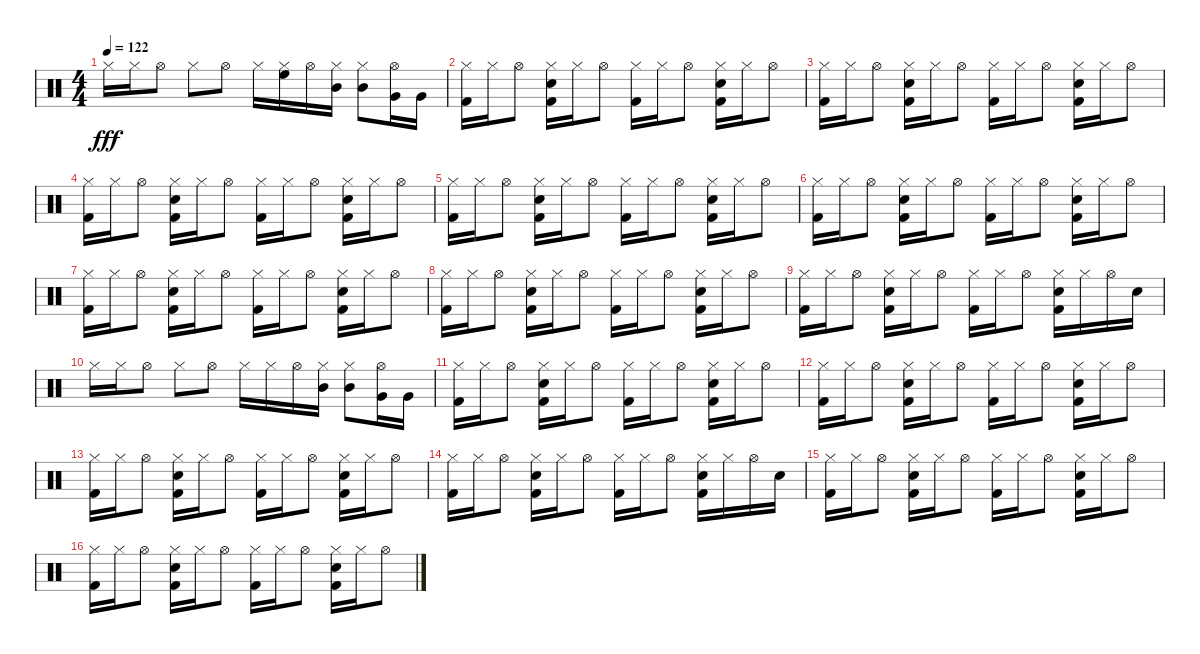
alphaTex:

\track "" {instrument percussion}
\staff {score}
\articulation defaults
\ts (4 4)
\tempo 122
\clef neutral
\ks c "Hi-Hat (closed)".16{dy fff} "Hi-Hat (closed)".16 "Hi-Hat (open)".8 "Hi-Hat (closed)".8 "Hi-Hat (open)".8 "Hi-Hat (closed)".16
("Hi-Hat (closed)" "High Floor Tom (hit)").16 "Hi-Hat (open)".16 ("Hi-Hat (closed)" "Mid Tom (hit)").16 ("Hi-Hat (closed)" "Mid Tom (hit)").8 ("Very Low Tom (hit)" "Hi-Hat (open)").16 "Very Low Tom (hit)".16 |
("Kick (hit) 2" "Hi-Hat (closed)").16 "Hi-Hat (closed)".16 "Hi-Hat (open)".8 ("Kick (hit) 2" "Snare (hit) 2" "Hi-Hat (closed)").16 "Hi-Hat (closed)".16 "Hi-Hat (open)".8 ("Kick (hit) 2" "Hi-Hat (closed)").16 "Hi-Hat (closed)".16 "Hi-Hat (open)".8 ("Kick (hit) 2" "Snare (hit) 2" "Hi-Hat (closed)").16 "Hi-Hat (closed)".16 "Hi-Hat (open)".8 |
("Kick (hit) 2" "Hi-Hat (closed)").16 "Hi-Hat (closed)".16 "Hi-Hat (open)".8 ("Kick (hit) 2" "Snare (hit) 2" "Hi-Hat (closed)").16 "Hi-Hat (closed)".16 "Hi-Hat (open)".8 ("Kick (hit) 2" "Hi-Hat (closed)").16 "Hi-Hat (closed)".16 "Hi-Hat (open)".8 ("Kick (hit) 2" "Snare (hit) 2" "Hi-Hat (closed)").16 "Hi-Hat (closed)".16 "Hi-Hat (open)".8 |
("Kick (hit) 2" "Hi-Hat (closed)").16 "Hi-Hat (closed)".16 "Hi-Hat (open)".8 ("Kick (hit) 2" "Snare (hit) 2" "Hi-Hat (closed)").16 "Hi-Hat (closed)".16 "Hi-Hat (open)".8 ("Kick (hit) 2" "Hi-Hat (closed)").16 "Hi-Hat (closed)".16 "Hi-Hat (open)".8 ("Kick (hit) 2" "Snare (hit) 2" "Hi-Hat (closed)").16 "Hi-Hat (closed)".16 "Hi-Hat (open)".8 |
("Kick (hit) 2" "Hi-Hat (closed)").16 "Hi-Hat (closed)".16 "Hi-Hat (open)".8 ("Kick (hit) 2" "Snare (hit) 2" "Hi-Hat (closed)").16 "Hi-Hat (closed)".16 "Hi-Hat (open)".8 ("Kick (hit) 2" "Hi-Hat (closed)").16 "Hi-Hat (closed)".16 "Hi-Hat (open)".8 ("Kick (hit) 2" "Snare (hit) 2" "Hi-Hat (closed)").16 "Hi-Hat (closed)".16 "Hi-Hat (open)".8 |
("Kick (hit) 2" "Hi-Hat (closed)").16 "Hi-Hat (closed)".16 "Hi-Hat (open)".8 ("Kick (hit) 2" "Snare (hit) 2" "Hi-Hat (closed)").16 "Hi-Hat (closed)".16 "Hi-Hat (open)".8 ("Kick (hit) 2" "Hi-Hat (closed)").16 "Hi-Hat (closed)".16 "Hi-Hat (open)".8 ("Kick (hit) 2" "Snare (hit) 2" "Hi-Hat (closed)").16 "Hi-Hat (closed)".16 "Hi-Hat (open)".8 |
("Kick (hit) 2" "Hi-Hat (closed)").16 "Hi-Hat (closed)".16 "Hi-Hat (open)".8 ("Kick (hit) 2" "Snare (hit) 2" "Hi-Hat (closed)").16 "Hi-Hat (closed)".16 "Hi-Hat (open)".8 ("Kick (hit) 2" "Hi-Hat (closed)").16 "Hi-Hat (closed)".16 "Hi-Hat (open)".8 ("Kick (hit) 2" "Snare (hit) 2" "Hi-Hat (closed)").16 "Hi-Hat (closed)".16 "Hi-Hat (open)".8 |
("Kick (hit) 2" "Hi-Hat (closed)").16 "Hi-Hat (closed)".16 "Hi-Hat (open)".8 ("Kick (hit) 2" "Snare (hit) 2" "Hi-Hat (closed)").16 "Hi-Hat (closed)".16 "Hi-Hat (open)".8 ("Kick (hit) 2" "Hi-Hat (closed)").16 "Hi-Hat (closed)".16 "Hi-Hat (open)".8 ("Kick (hit) 2" "Snare (hit) 2" "Hi-Hat (closed)").16 "Hi-Hat (closed)".16 "Hi-Hat (open)".8 |
("Kick (hit) 2" "Hi-Hat (closed)").16 "Hi-Hat (closed)".16 "Hi-Hat (open)".8 ("Kick (hit) 2" "Snare (hit) 2" "Hi-Hat (closed)").16 "Hi-Hat (closed)".16 "Hi-Hat (open)".8 ("Kick (hit) 2" "Hi-Hat (closed)").16 "Hi-Hat (closed)".16 "Hi-Hat (open)".8 ("Kick (hit) 2" "Snare (hit) 2" "Hi-Hat (closed)").16 "Hi-Hat (closed)".16 "Hi-Hat (open)".16 "Snare (hit) 2".16 |
"Hi-Hat (closed)".16 "Hi-Hat (closed)".16 "Hi-Hat (open)".8 "Hi-Hat (closed)".8 "Hi-Hat (open)".8 "Hi-Hat (closed)".16 "Hi-Hat (closed)".16 "Hi-Hat (open)".16 ("Hi-Hat (closed)" "Mid Tom (hit)").16 ("Hi-Hat (closed)" "Mid Tom (hit)").8 ("Very Low Tom (hit)" "Hi-Hat (open)").16 "Very Low Tom (hit)".16 |
("Kick (hit) 2" "Hi-Hat (closed)").16 "Hi-Hat (closed)".16 "Hi-Hat (open)".8 ("Kick (hit) 2" "Snare (hit) 2" "Hi-Hat (closed)").16 "Hi-Hat (closed)".16 "Hi-Hat (open)".8 ("Kick (hit) 2" "Hi-Hat (closed)").16 "Hi-Hat (closed)".16 "Hi-Hat (open)".8 ("Kick (hit) 2" "Snare (hit) 2" "Hi-Hat (closed)").16 "Hi-Hat (closed)".16 "Hi-Hat (open)".8 |
("Kick (hit) 2" "Hi-Hat (closed)").16 "Hi-Hat (closed)".16 "Hi-Hat (open)".8 ("Kick (hit) 2" "Snare (hit) 2" "Hi-Hat (closed)").16 "Hi-Hat (closed)".16 "Hi-Hat (open)".8 ("Kick (hit) 2" "Hi-Hat (closed)").16 "Hi-Hat (closed)".16 "Hi-Hat (open)".8 ("Kick (hit) 2" "Snare (hit) 2" "Hi-Hat (closed)").16 "Hi-Hat (closed)".16 "Hi-Hat (open)".8 |
("Kick (hit) 2" "Hi-Hat (closed)").16 "Hi-Hat (closed)".16 "Hi-Hat (open)".8 ("Kick (hit) 2" "Snare (hit) 2" "Hi-Hat (closed)").16 "Hi-Hat (closed)".16 "Hi-Hat (open)".8 ("Kick (hit) 2" "Hi-Hat (closed)").16 "Hi-Hat (closed)".16 "Hi-Hat (open)".8 ("Kick (hit) 2" "Snare (hit) 2" "Hi-Hat (closed)").16 "Hi-Hat (closed)".16 "Hi-Hat (open)".8 |
("Kick (hit) 2" "Hi-Hat (closed)").16 "Hi-Hat (closed)".16 "Hi-Hat (open)".8 ("Kick (hit) 2" "Snare (hit) 2" "Hi-Hat (closed)").16 "Hi-Hat (closed)".16 "Hi-Hat (open)".8 ("Kick (hit) 2" "Hi-Hat (closed)").16 "Hi-Hat (closed)".16 "Hi-Hat (open)".8 ("Kick (hit) 2" "Snare (hit) 2" "Hi-Hat (closed)").16 "Hi-Hat (closed)".16 "Hi-Hat (open)".16 "Snare (hit) 2".16 |
("Kick (hit) 2" "Hi-Hat (closed)").16 "Hi-Hat (closed)".16 "Hi-Hat (open)".8 ("Kick (hit) 2" "Snare (hit) 2" "Hi-Hat (closed)").16 "Hi-Hat (closed)".16 "Hi-Hat (open)".8 ("Kick (hit) 2" "Hi-Hat (closed)").16 "Hi-Hat (closed)".16 "Hi-Hat (open)".8 ("Kick (hit) 2" "Snare (hit) 2" "Hi-Hat (closed)").16 "Hi-Hat (closed)".16 "Hi-Hat (open)".8 |
("Kick (hit) 2" "Hi-Hat (closed)").16 "Hi-Hat (closed)".16 "Hi-Hat (open)".8 ("Kick (hit) 2" "Snare (hit) 2" "Hi-Hat (closed)").16 "Hi-Hat (closed)".16 "Hi-Hat (open)".8 ("Kick (hit) 2" "Hi-Hat (closed)").16 "Hi-Hat (closed)".16 "Hi-Hat (open)".8 ("Kick (hit) 2" "Snare (hit) 2" "Hi-Hat (closed)").16 "Hi-Hat (closed)".16 "Hi-Hat (open)".8
